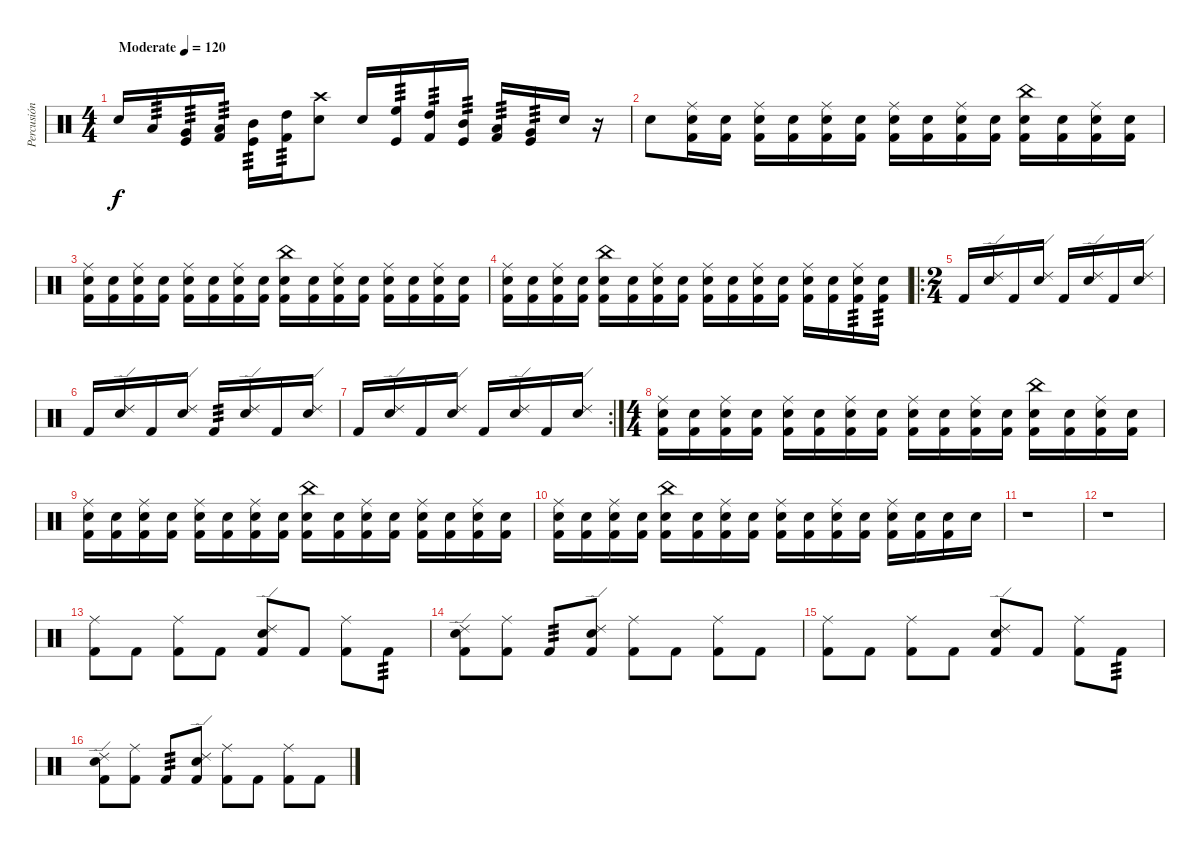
\track ("Percusión" "Percusión") {instrument percussion}
\staff {score}
\articulation defaults
\ts (4 4)
\tempo (120 "Moderate")
\clef neutral
\ks c "Electric Snare (hit)".16{dy f} "Low Floor Tom (hit)".16{tp 3}
("Very Low Tom (hit)" "Kick (hit)").16{tp 3} ("Low Tom (hit)" "Kick (hit) 2").16{tp 3} ("Mid Tom (hit)" "Kick (hit)").16{tp 3} ("High Tom (hit)" "Kick (hit) 2").16{tp 3} ("Electric Snare (hit)" "Crash high (hit)").8 "Electric Snare (hit)".16 ("High Floor Tom (hit)" "Kick (hit)").16{tp 3} ("High Tom (hit)" "Kick (hit) 2").16{tp 3} ("Mid Tom (hit)" "Kick (hit)").16{tp 3} ("Low Tom (hit)" "Kick (hit) 2").16{tp 3} ("Very Low Tom (hit)" "Kick (hit)").16{tp 3} "Electric Snare (hit)".16 r.16 |
"Electric Snare (hit)".8 ("Electric Snare (hit)" "Kick (hit) 2" "Ride (middle)").16 ("Electric Snare (hit)" "Kick (hit) 2").16 ("Electric Snare (hit)" "Kick (hit) 2" "Ride (middle)").16 ("Electric Snare (hit)" "Kick (hit) 2").16 ("Electric Snare (hit)" "Kick (hit) 2" "Ride (middle)").16 ("Electric Snare (hit)" "Kick (hit) 2").16 ("Electric Snare (hit)" "Kick (hit) 2" "Ride (middle)").16 ("Electric Snare (hit)" "Kick (hit) 2").16 ("Electric Snare (hit)" "Kick (hit) 2" "Ride (middle)").16 ("Electric Snare (hit)" "Kick (hit) 2").16 ("Electric Snare (hit)" "Kick (hit) 2" "China (hit)").16 ("Electric Snare (hit)" "Kick (hit) 2").16 ("Electric Snare (hit)" "Kick (hit) 2" "Ride (middle)").16 ("Electric Snare (hit)" "Kick (hit) 2").16 |
("Electric Snare (hit)" "Kick (hit) 2" "Ride (middle)").16 ("Electric Snare (hit)" "Kick (hit) 2").16 ("Electric Snare (hit)" "Kick (hit) 2" "Ride (middle)").16 ("Electric Snare (hit)" "Kick (hit) 2").16 ("Electric Snare (hit)" "Kick (hit) 2" "Ride (middle)").16 ("Electric Snare (hit)" "Kick (hit) 2").16 ("Electric Snare (hit)" "Kick (hit) 2" "Ride (middle)").16 ("Electric Snare (hit)" "Kick (hit) 2").16 ("Electric Snare (hit)" "Kick (hit) 2" "China (hit)").16 ("Electric Snare (hit)" "Kick (hit) 2").16 ("Electric Snare (hit)" "Kick (hit) 2" "Ride (middle)").16 ("Electric Snare (hit)" "Kick (hit) 2").16 ("Electric Snare (hit)" "Kick (hit) 2" "Ride (middle)").16 ("Electric Snare (hit)" "Kick (hit) 2").16 ("Electric Snare (hit)" "Kick (hit) 2" "Ride (middle)").16 ("Electric Snare (hit)" "Kick (hit) 2").16 |
("Electric Snare (hit)" "Kick (hit) 2" "Ride (middle)").16 ("Electric Snare (hit)" "Kick (hit) 2").16 ("Electric Snare (hit)" "Kick (hit) 2" "Ride (middle)").16 ("Electric Snare (hit)" "Kick (hit) 2").16 ("Electric Snare (hit)" "Kick (hit) 2" "China (hit)").16 ("Electric Snare (hit)" "Kick (hit) 2").16 ("Electric Snare (hit)" "Kick (hit) 2" "Ride (middle)").16 ("Electric Snare (hit)" "Kick (hit) 2").16 ("Electric Snare (hit)" "Kick (hit) 2" "Ride (middle)").16 ("Electric Snare (hit)" "Kick (hit) 2").16 ("Electric Snare (hit)" "Kick (hit) 2" "Ride (middle)").16 ("Electric Snare (hit)" "Kick (hit) 2").16 ("Electric Snare (hit)" "Kick (hit) 2" "Ride (middle)").16 ("Electric Snare (hit)" "Kick (hit) 2").16 ("Electric Snare (hit)" "Kick (hit) 2" "Ride (middle)").16{tp 3} ("Electric Snare (hit)" "Kick (hit) 2").16{tp 3} |
\ro
\ts (2 4)
"Kick (hit) 2".16 ("Ride (edge) 2" "Electric Snare (hit)").16 "Kick (hit) 2".16 ("Ride (edge) 2" "Electric Snare (hit)").16 "Kick (hit) 2".16 ("Ride (edge) 2" "Electric Snare (hit)").16 "Kick (hit) 2".16 ("Ride (edge) 2" "Electric Snare (hit)").16 |
"Kick (hit) 2".16 ("Ride (edge) 2" "Electric Snare (hit)").16 "Kick (hit) 2".16 ("Ride (edge) 2" "Electric Snare (hit)").16 "Kick (hit) 2".16{tp 3} ("Ride (edge) 2" "Electric Snare (hit)").16 "Kick (hit) 2".16 ("Ride (edge) 2" "Electric Snare (hit)").16 |
\rc 2 "Kick (hit) 2".16
("Ride (edge) 2" "Electric Snare (hit)").16 "Kick (hit) 2".16 ("Ride (edge) 2" "Electric Snare (hit)").16 "Kick (hit) 2".16 ("Ride (edge) 2" "Electric Snare (hit)").16 "Kick (hit) 2".16 ("Ride (edge) 2" "Electric Snare (hit)").16 |
\ts (4 4)
("Electric Snare (hit)" "Kick (hit) 2" "Ride (middle)").16 ("Electric Snare (hit)" "Kick (hit) 2").16 ("Electric Snare (hit)" "Kick (hit) 2" "Ride (middle)").16 ("Electric Snare (hit)" "Kick (hit) 2").16 ("Electric Snare (hit)" "Kick (hit) 2" "Ride (middle)").16 ("Electric Snare (hit)" "Kick (hit) 2").16 ("Electric Snare (hit)" "Kick (hit) 2" "Ride (middle)").16 ("Electric Snare (hit)" "Kick (hit) 2").16 ("Electric Snare (hit)" "Kick (hit) 2" "Ride (middle)").16 ("Electric Snare (hit)" "Kick (hit) 2").16 ("Electric Snare (hit)" "Kick (hit) 2" "Ride (middle)").16 ("Electric Snare (hit)" "Kick (hit) 2").16 ("Electric Snare (hit)" "Kick (hit) 2" "China (hit)").16 ("Electric Snare (hit)" "Kick (hit) 2").16 ("Electric Snare (hit)" "Kick (hit) 2" "Ride (middle)").16 ("Electric Snare (hit)" "Kick (hit) 2").16 |
("Electric Snare (hit)" "Kick (hit) 2" "Ride (middle)").16 ("Electric Snare (hit)" "Kick (hit) 2").16 ("Electric Snare (hit)" "Kick (hit) 2" "Ride (middle)").16 ("Electric Snare (hit)" "Kick (hit) 2").16 ("Electric Snare (hit)" "Kick (hit) 2" "Ride (middle)").16 ("Electric Snare (hit)" "Kick (hit) 2").16 ("Electric Snare (hit)" "Kick (hit) 2" "Ride (middle)").16 ("Electric Snare (hit)" "Kick (hit) 2").16 ("Electric Snare (hit)" "Kick (hit) 2" "China (hit)").16 ("Electric Snare (hit)" "Kick (hit) 2").16 ("Electric Snare (hit)" "Kick (hit) 2" "Ride (middle)").16 ("Electric Snare (hit)" "Kick (hit) 2").16 ("Electric Snare (hit)" "Kick (hit) 2" "Ride (middle)").16 ("Electric Snare (hit)" "Kick (hit) 2").16 ("Electric Snare (hit)" "Kick (hit) 2" "Ride (middle)").16 ("Electric Snare (hit)" "Kick (hit) 2").16 |
("Electric Snare (hit)" "Kick (hit) 2" "Ride (middle)").16 ("Electric Snare (hit)" "Kick (hit) 2").16 ("Electric Snare (hit)" "Kick (hit) 2" "Ride (middle)").16 ("Electric Snare (hit)" "Kick (hit) 2").16 ("Electric Snare (hit)" "Kick (hit) 2" "China (hit)").16 ("Electric Snare (hit)" "Kick (hit) 2").16 ("Electric Snare (hit)" "Kick (hit) 2" "Ride (middle)").16 ("Electric Snare (hit)" "Kick (hit) 2").16 ("Electric Snare (hit)" "Kick (hit) 2" "Ride (middle)").16 ("Electric Snare (hit)" "Kick (hit) 2").16 ("Electric Snare (hit)" "Kick (hit) 2" "Ride (middle)").16 ("Electric Snare (hit)" "Kick (hit) 2").16 ("Electric Snare (hit)" "Kick (hit) 2" "Ride (middle)").16 ("Electric Snare (hit)" "Kick (hit) 2").16 ("Electric Snare (hit)" "Kick (hit) 2").16 "Electric Snare (hit)".16 |
r.1 |
r.1 |
("Kick (hit) 2" "Ride (middle)").8 "Kick (hit) 2".8 ("Kick (hit) 2" "Ride (middle)").8 "Kick (hit) 2".8 ("Kick (hit) 2" "Ride (edge) 2" "Electric Snare (hit)").8 "Kick (hit) 2".8 ("Kick (hit) 2" "Ride (middle)").8 "Kick (hit) 2".8{tp 3} |
("Kick (hit) 2" "Ride (edge) 2" "Electric Snare (hit)").8 ("Kick (hit) 2" "Ride (middle)").8 "Kick (hit) 2".8{tp 3} ("Kick (hit) 2" "Ride (edge) 2" "Electric Snare (hit)").8 ("Kick (hit) 2" "Ride (middle)").8 "Kick (hit) 2".8 ("Kick (hit) 2" "Ride (middle)").8 "Kick (hit) 2".8 |
("Kick (hit) 2" "Ride (middle)").8 "Kick (hit) 2".8 ("Kick (hit) 2" "Ride (middle)").8 "Kick (hit) 2".8 ("Kick (hit) 2" "Ride (edge) 2" "Electric Snare (hit)").8 "Kick (hit) 2".8 ("Kick (hit) 2" "Ride (middle)").8 "Kick (hit) 2".8{tp 3} |
("Kick (hit) 2" "Ride (edge) 2" "Electric Snare (hit)").8 ("Kick (hit) 2" "Ride (middle)").8 "Kick (hit) 2".8{tp 3} ("Kick (hit) 2" "Ride (edge) 2" "Electric Snare (hit)").8 ("Kick (hit) 2" "Ride (middle)").8 "Kick (hit) 2".8 ("Kick (hit) 2" "Ride (middle)").8 "Kick (hit) 2".8
